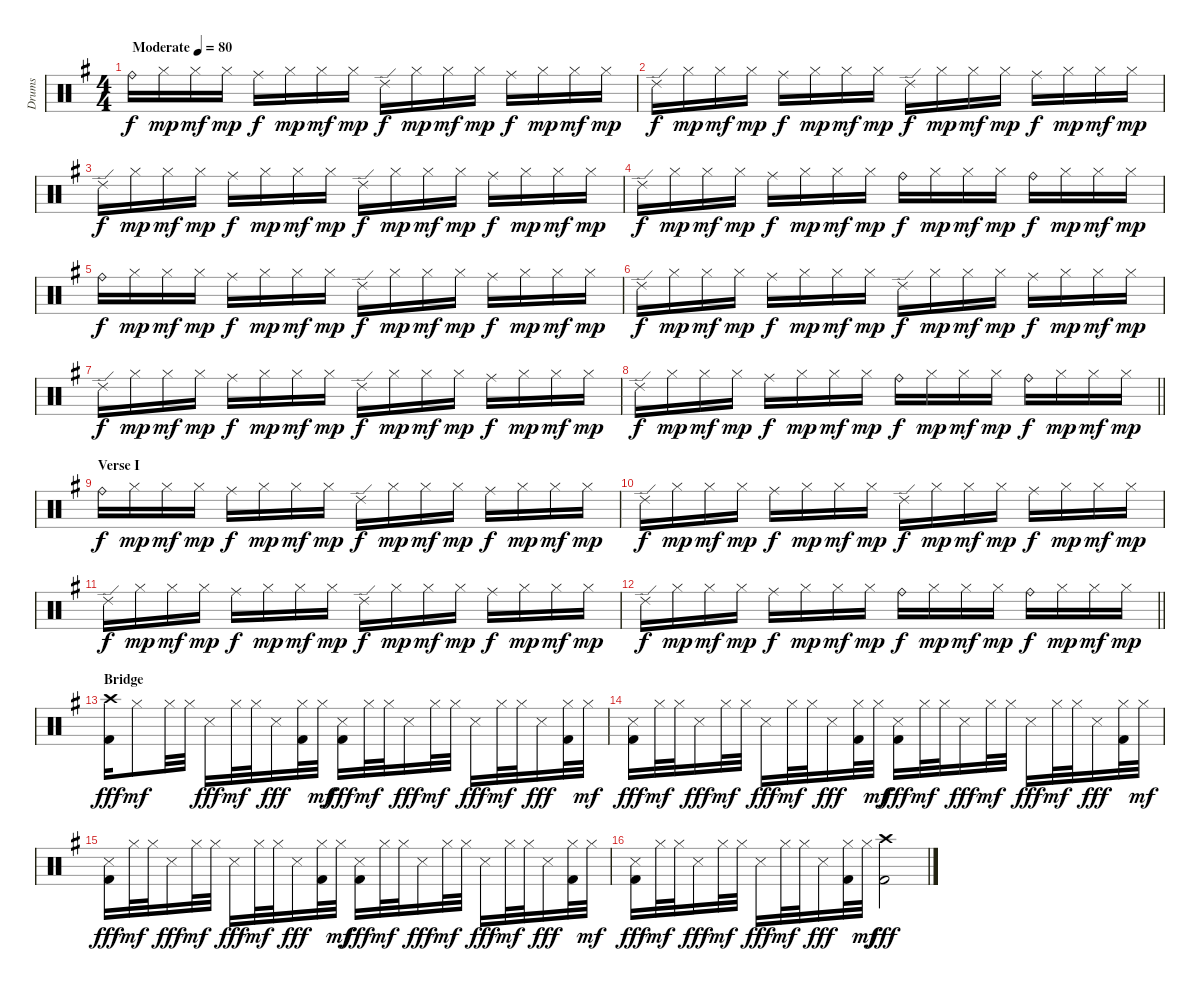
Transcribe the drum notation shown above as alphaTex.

\track ("Drums" "Drums") {instrument percussion}
\staff {score}
\articulation defaults
\ts (4 4)
\tempo (80 "Moderate")
\clef neutral
\ks g "Ride (bell)".16{dy f} "Hi-Hat (closed)".16{dy mp} "Hi-Hat (closed)".16{dy mf} "Hi-Hat (closed)".16{dy mp} "Ride (middle)".16{dy f} "Hi-Hat (closed)".16{dy mp} "Hi-Hat (closed)".16{dy mf} "Hi-Hat (closed)".16{dy mp} "Ride (edge) 2".16{dy f} "Hi-Hat (closed)".16{dy mp} "Hi-Hat (closed)".16{dy mf} "Hi-Hat (closed)".16{dy mp} "Ride (middle)".16{dy f} "Hi-Hat (closed)".16{dy mp} "Hi-Hat (closed)".16{dy mf} "Hi-Hat (closed)".16{dy mp}
|
"Ride (edge) 2".16{dy f} "Hi-Hat (closed)".16{dy mp} "Hi-Hat (closed)".16{dy mf} "Hi-Hat (closed)".16{dy mp} "Ride (middle)".16{dy f} "Hi-Hat (closed)".16{dy mp} "Hi-Hat (closed)".16{dy mf} "Hi-Hat (closed)".16{dy mp} "Ride (edge) 2".16{dy f} "Hi-Hat (closed)".16{dy mp} "Hi-Hat (closed)".16{dy mf} "Hi-Hat (closed)".16{dy mp} "Ride (middle)".16{dy f} "Hi-Hat (closed)".16{dy mp} "Hi-Hat (closed)".16{dy mf} "Hi-Hat (closed)".16{dy mp} |
"Ride (edge) 2".16{dy f} "Hi-Hat (closed)".16{dy mp} "Hi-Hat (closed)".16{dy mf} "Hi-Hat (closed)".16{dy mp} "Ride (middle)".16{dy f} "Hi-Hat (closed)".16{dy mp} "Hi-Hat (closed)".16{dy mf} "Hi-Hat (closed)".16{dy mp} "Ride (edge) 2".16{dy f} "Hi-Hat (closed)".16{dy mp} "Hi-Hat (closed)".16{dy mf} "Hi-Hat (closed)".16{dy mp} "Ride (middle)".16{dy f} "Hi-Hat (closed)".16{dy mp} "Hi-Hat (closed)".16{dy mf} "Hi-Hat (closed)".16{dy mp} |
"Ride (edge) 2".16{dy f} "Hi-Hat (closed)".16{dy mp} "Hi-Hat (closed)".16{dy mf} "Hi-Hat (closed)".16{dy mp} "Ride (middle)".16{dy f} "Hi-Hat (closed)".16{dy mp} "Hi-Hat (closed)".16{dy mf} "Hi-Hat (closed)".16{dy mp} "Ride (bell)".16{dy f} "Hi-Hat (closed)".16{dy mp} "Hi-Hat (closed)".16{dy mf} "Hi-Hat (closed)".16{dy mp} "Ride (bell)".16{dy f} "Hi-Hat (closed)".16{dy mp} "Hi-Hat (closed)".16{dy mf} "Hi-Hat (closed)".16{dy mp} |
"Ride (bell)".16{dy f} "Hi-Hat (closed)".16{dy mp} "Hi-Hat (closed)".16{dy mf} "Hi-Hat (closed)".16{dy mp} "Ride (middle)".16{dy f} "Hi-Hat (closed)".16{dy mp} "Hi-Hat (closed)".16{dy mf} "Hi-Hat (closed)".16{dy mp} "Ride (edge) 2".16{dy f} "Hi-Hat (closed)".16{dy mp} "Hi-Hat (closed)".16{dy mf} "Hi-Hat (closed)".16{dy mp} "Ride (middle)".16{dy f} "Hi-Hat (closed)".16{dy mp} "Hi-Hat (closed)".16{dy mf} "Hi-Hat (closed)".16{dy mp} |
"Ride (edge) 2".16{dy f} "Hi-Hat (closed)".16{dy mp} "Hi-Hat (closed)".16{dy mf} "Hi-Hat (closed)".16{dy mp} "Ride (middle)".16{dy f} "Hi-Hat (closed)".16{dy mp} "Hi-Hat (closed)".16{dy mf} "Hi-Hat (closed)".16{dy mp} "Ride (edge) 2".16{dy f} "Hi-Hat (closed)".16{dy mp} "Hi-Hat (closed)".16{dy mf} "Hi-Hat (closed)".16{dy mp} "Ride (middle)".16{dy f} "Hi-Hat (closed)".16{dy mp} "Hi-Hat (closed)".16{dy mf} "Hi-Hat (closed)".16{dy mp} |
"Ride (edge) 2".16{dy f} "Hi-Hat (closed)".16{dy mp} "Hi-Hat (closed)".16{dy mf} "Hi-Hat (closed)".16{dy mp} "Ride (middle)".16{dy f} "Hi-Hat (closed)".16{dy mp} "Hi-Hat (closed)".16{dy mf} "Hi-Hat (closed)".16{dy mp} "Ride (edge) 2".16{dy f} "Hi-Hat (closed)".16{dy mp} "Hi-Hat (closed)".16{dy mf} "Hi-Hat (closed)".16{dy mp} "Ride (middle)".16{dy f} "Hi-Hat (closed)".16{dy mp} "Hi-Hat (closed)".16{dy mf} "Hi-Hat (closed)".16{dy mp} |
\barLineRight lightlight "Ride (edge) 2".16{dy f} "Hi-Hat (closed)".16{dy mp} "Hi-Hat (closed)".16{dy mf} "Hi-Hat (closed)".16{dy mp} "Ride (middle)".16{dy f} "Hi-Hat (closed)".16{dy mp} "Hi-Hat (closed)".16{dy mf} "Hi-Hat (closed)".16{dy mp} "Ride (bell)".16{dy f} "Hi-Hat (closed)".16{dy mp} "Hi-Hat (closed)".16{dy mf} "Hi-Hat (closed)".16{dy mp} "Ride (bell)".16{dy f} "Hi-Hat (closed)".16{dy mp} "Hi-Hat (closed)".16{dy mf} "Hi-Hat (closed)".16{dy mp}
|
\section ("" "Verse I")
"Ride (bell)".16{dy f} "Hi-Hat (closed)".16{dy mp} "Hi-Hat (closed)".16{dy mf} "Hi-Hat (closed)".16{dy mp} "Ride (middle)".16{dy f} "Hi-Hat (closed)".16{dy mp} "Hi-Hat (closed)".16{dy mf} "Hi-Hat (closed)".16{dy mp} "Ride (edge) 2".16{dy f} "Hi-Hat (closed)".16{dy mp} "Hi-Hat (closed)".16{dy mf} "Hi-Hat (closed)".16{dy mp} "Ride (middle)".16{dy f} "Hi-Hat (closed)".16{dy mp} "Hi-Hat (closed)".16{dy mf} "Hi-Hat (closed)".16{dy mp} |
"Ride (edge) 2".16{dy f} "Hi-Hat (closed)".16{dy mp} "Hi-Hat (closed)".16{dy mf} "Hi-Hat (closed)".16{dy mp} "Ride (middle)".16{dy f} "Hi-Hat (closed)".16{dy mp} "Hi-Hat (closed)".16{dy mf} "Hi-Hat (closed)".16{dy mp} "Ride (edge) 2".16{dy f} "Hi-Hat (closed)".16{dy mp} "Hi-Hat (closed)".16{dy mf} "Hi-Hat (closed)".16{dy mp} "Ride (middle)".16{dy f} "Hi-Hat (closed)".16{dy mp} "Hi-Hat (closed)".16{dy mf} "Hi-Hat (closed)".16{dy mp} |
"Ride (edge) 2".16{dy f} "Hi-Hat (closed)".16{dy mp} "Hi-Hat (closed)".16{dy mf} "Hi-Hat (closed)".16{dy mp} "Ride (middle)".16{dy f} "Hi-Hat (closed)".16{dy mp} "Hi-Hat (closed)".16{dy mf} "Hi-Hat (closed)".16{dy mp} "Ride (edge) 2".16{dy f} "Hi-Hat (closed)".16{dy mp} "Hi-Hat (closed)".16{dy mf} "Hi-Hat (closed)".16{dy mp} "Ride (middle)".16{dy f} "Hi-Hat (closed)".16{dy mp} "Hi-Hat (closed)".16{dy mf} "Hi-Hat (closed)".16{dy mp} |
\barLineRight lightlight "Ride (edge) 2".16{dy f} "Hi-Hat (closed)".16{dy mp} "Hi-Hat (closed)".16{dy mf} "Hi-Hat (closed)".16{dy mp} "Ride (middle)".16{dy f} "Hi-Hat (closed)".16{dy mp} "Hi-Hat (closed)".16{dy mf} "Hi-Hat (closed)".16{dy mp} "Ride (bell)".16{dy f} "Hi-Hat (closed)".16{dy mp} "Hi-Hat (closed)".16{dy mf} "Hi-Hat (closed)".16{dy mp} "Ride (bell)".16{dy f} "Hi-Hat (closed)".16{dy mp} "Hi-Hat (closed)".16{dy mf} "Hi-Hat (closed)".16{dy mp}
|
\section ("" "Bridge")
("Crash high (hit)" "Kick (hit) 2").16{dy fff} "Hi-Hat (closed)".8{dy mf} "Hi-Hat (closed)".32 "Hi-Hat (closed)".32 "Snare (side stick) 3".16{dy fff} "Hi-Hat (closed)".32{dy mf} "Hi-Hat (closed)".32 "Snare (side stick) 3".16{dy fff} ("Hi-Hat (closed)" "Kick (hit) 2").32 "Hi-Hat (closed)".32{dy mf} ("Snare (side stick) 3" "Kick (hit) 2").16{dy fff} "Hi-Hat (closed)".32{dy mf} "Hi-Hat (closed)".32 "Snare (side stick) 3".16{dy fff} "Hi-Hat (closed)".32{dy mf} "Hi-Hat (closed)".32 "Snare (side stick) 3".16{dy fff} "Hi-Hat (closed)".32{dy mf} "Hi-Hat (closed)".32 "Snare (side stick) 3".16{dy fff} ("Hi-Hat (closed)" "Kick (hit) 2").32 "Hi-Hat (closed)".32{dy mf} |
("Snare (side stick) 3" "Kick (hit) 2").16{dy fff} "Hi-Hat (closed)".32{dy mf} "Hi-Hat (closed)".32 "Snare (side stick) 3".16{dy fff} "Hi-Hat (closed)".32{dy mf} "Hi-Hat (closed)".32 "Snare (side stick) 3".16{dy fff} "Hi-Hat (closed)".32{dy mf} "Hi-Hat (closed)".32 "Snare (side stick) 3".16{dy fff} ("Hi-Hat (closed)" "Kick (hit) 2").32 "Hi-Hat (closed)".32{dy mf} ("Snare (side stick) 3" "Kick (hit) 2").16{dy fff} "Hi-Hat (closed)".32{dy mf} "Hi-Hat (closed)".32 "Snare (side stick) 3".16{dy fff} "Hi-Hat (closed)".32{dy mf} "Hi-Hat (closed)".32 "Snare (side stick) 3".16{dy fff} "Hi-Hat (closed)".32{dy mf} "Hi-Hat (closed)".32 "Snare (side stick) 3".16{dy fff} ("Hi-Hat (closed)" "Kick (hit) 2").32 "Hi-Hat (closed)".32{dy mf} |
("Snare (side stick) 3" "Kick (hit) 2").16{dy fff} "Hi-Hat (closed)".32{dy mf} "Hi-Hat (closed)".32 "Snare (side stick) 3".16{dy fff} "Hi-Hat (closed)".32{dy mf} "Hi-Hat (closed)".32 "Snare (side stick) 3".16{dy fff} "Hi-Hat (closed)".32{dy mf} "Hi-Hat (closed)".32 "Snare (side stick) 3".16{dy fff} ("Hi-Hat (closed)" "Kick (hit) 2").32 "Hi-Hat (closed)".32{dy mf} ("Snare (side stick) 3" "Kick (hit) 2").16{dy fff} "Hi-Hat (closed)".32{dy mf} "Hi-Hat (closed)".32 "Snare (side stick) 3".16{dy fff} "Hi-Hat (closed)".32{dy mf} "Hi-Hat (closed)".32 "Snare (side stick) 3".16{dy fff} "Hi-Hat (closed)".32{dy mf} "Hi-Hat (closed)".32 "Snare (side stick) 3".16{dy fff} ("Hi-Hat (closed)" "Kick (hit) 2").32 "Hi-Hat (closed)".32{dy mf} |
("Snare (side stick) 3" "Kick (hit) 2").16{dy fff} "Hi-Hat (closed)".32{dy mf} "Hi-Hat (closed)".32 "Snare (side stick) 3".16{dy fff} "Hi-Hat (closed)".32{dy mf} "Hi-Hat (closed)".32 "Snare (side stick) 3".16{dy fff} "Hi-Hat (closed)".32{dy mf} "Hi-Hat (closed)".32 "Snare (side stick) 3".16{dy fff} ("Hi-Hat (closed)" "Kick (hit) 2").32 "Hi-Hat (closed)".32{dy mf} ("Crash high (hit)" "Kick (hit) 2").2{dy fff}
